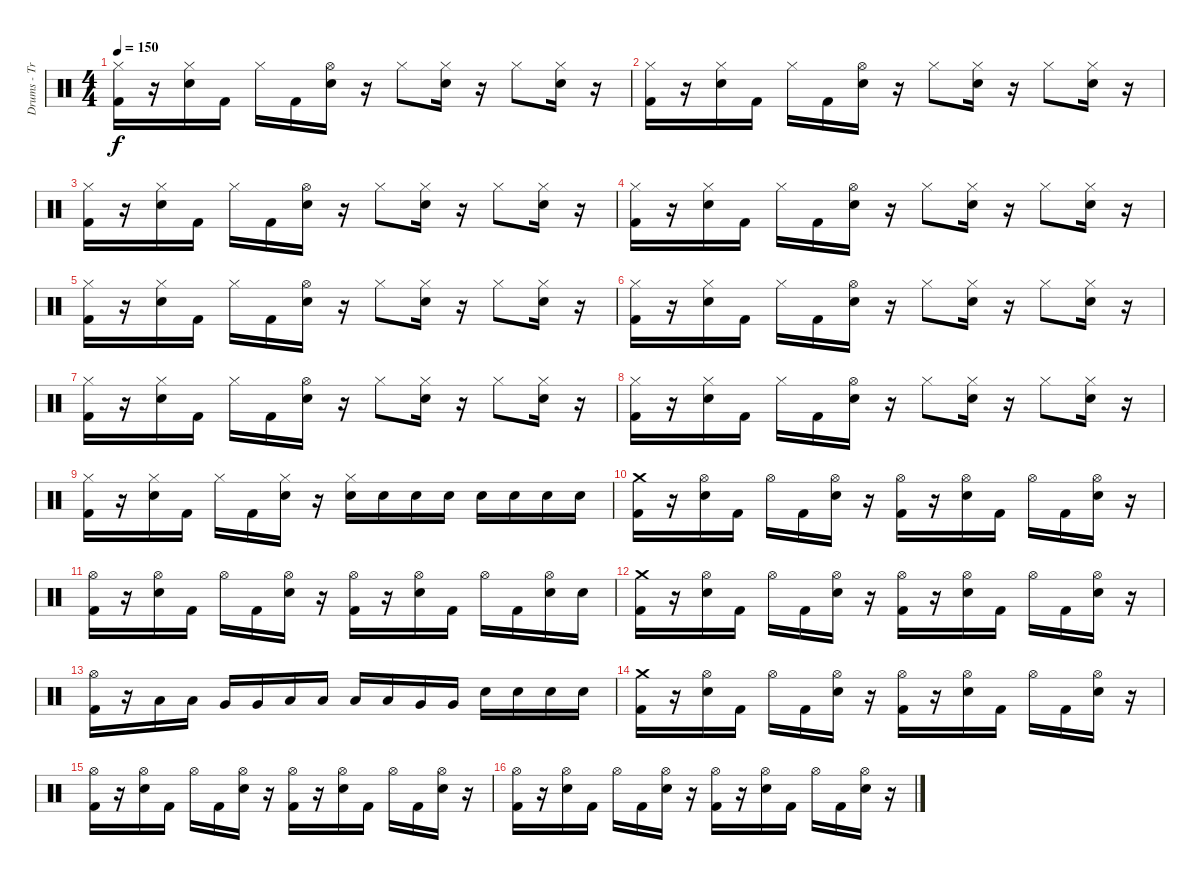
\track ("Drums - Travis Barker" "Drums - Tr") {instrument percussion}
\staff {score}
\articulation defaults
\ts (4 4)
\tempo 150
\clef neutral
\ks c
("Hi-Hat (closed)" "Kick (hit) 2").16{dy f} r.16 ("Hi-Hat (closed)" "Electric Snare (hit)").16 "Kick (hit) 2".16 "Hi-Hat (closed)".16 "Kick (hit) 2".16 ("Hi-Hat (open)" "Electric Snare (hit)").16 r.16 "Hi-Hat (closed)".8 ("Hi-Hat (closed)" "Electric Snare (hit)").16 r.16 "Hi-Hat (closed)".8 ("Hi-Hat (closed)" "Electric Snare (hit)").16 r.16 |
("Hi-Hat (closed)" "Kick (hit) 2").16 r.16 ("Hi-Hat (closed)" "Electric Snare (hit)").16 "Kick (hit) 2".16 "Hi-Hat (closed)".16 "Kick (hit) 2".16 ("Hi-Hat (open)" "Electric Snare (hit)").16 r.16 "Hi-Hat (closed)".8 ("Hi-Hat (closed)" "Electric Snare (hit)").16 r.16 "Hi-Hat (closed)".8 ("Hi-Hat (closed)" "Electric Snare (hit)").16 r.16 |
("Hi-Hat (closed)" "Kick (hit) 2").16 r.16 ("Hi-Hat (closed)" "Electric Snare (hit)").16 "Kick (hit) 2".16 "Hi-Hat (closed)".16 "Kick (hit) 2".16 ("Hi-Hat (open)" "Electric Snare (hit)").16 r.16 "Hi-Hat (closed)".8 ("Hi-Hat (closed)" "Electric Snare (hit)").16 r.16 "Hi-Hat (closed)".8 ("Hi-Hat (closed)" "Electric Snare (hit)").16 r.16 |
("Hi-Hat (closed)" "Kick (hit) 2").16 r.16 ("Hi-Hat (closed)" "Electric Snare (hit)").16 "Kick (hit) 2".16 "Hi-Hat (closed)".16 "Kick (hit) 2".16 ("Hi-Hat (open)" "Electric Snare (hit)").16 r.16 "Hi-Hat (closed)".8 ("Hi-Hat (closed)" "Electric Snare (hit)").16 r.16 "Hi-Hat (closed)".8 ("Hi-Hat (closed)" "Electric Snare (hit)").16 r.16 |
("Hi-Hat (closed)" "Kick (hit) 2").16 r.16 ("Hi-Hat (closed)" "Electric Snare (hit)").16 "Kick (hit) 2".16 "Hi-Hat (closed)".16 "Kick (hit) 2".16 ("Hi-Hat (open)" "Electric Snare (hit)").16 r.16 "Hi-Hat (closed)".8 ("Hi-Hat (closed)" "Electric Snare (hit)").16 r.16 "Hi-Hat (closed)".8 ("Hi-Hat (closed)" "Electric Snare (hit)").16 r.16 |
("Hi-Hat (closed)" "Kick (hit) 2").16 r.16 ("Hi-Hat (closed)" "Electric Snare (hit)").16 "Kick (hit) 2".16 "Hi-Hat (closed)".16 "Kick (hit) 2".16 ("Hi-Hat (open)" "Electric Snare (hit)").16 r.16 "Hi-Hat (closed)".8 ("Hi-Hat (closed)" "Electric Snare (hit)").16 r.16 "Hi-Hat (closed)".8 ("Hi-Hat (closed)" "Electric Snare (hit)").16 r.16 |
("Hi-Hat (closed)" "Kick (hit) 2").16 r.16 ("Hi-Hat (closed)" "Electric Snare (hit)").16 "Kick (hit) 2".16 "Hi-Hat (closed)".16 "Kick (hit) 2".16 ("Hi-Hat (open)" "Electric Snare (hit)").16 r.16 "Hi-Hat (closed)".8 ("Hi-Hat (closed)" "Electric Snare (hit)").16 r.16 "Hi-Hat (closed)".8 ("Hi-Hat (closed)" "Electric Snare (hit)").16 r.16 |
("Hi-Hat (closed)" "Kick (hit) 2").16 r.16 ("Hi-Hat (closed)" "Electric Snare (hit)").16 "Kick (hit) 2".16 "Hi-Hat (closed)".16 "Kick (hit) 2".16 ("Hi-Hat (open)" "Electric Snare (hit)").16 r.16 "Hi-Hat (closed)".8 ("Hi-Hat (closed)" "Electric Snare (hit)").16 r.16 "Hi-Hat (closed)".8 ("Hi-Hat (closed)" "Electric Snare (hit)").16 r.16 |
("Hi-Hat (closed)" "Kick (hit) 2").16 r.16 ("Hi-Hat (closed)" "Electric Snare (hit)").16 "Kick (hit) 2".16 "Hi-Hat (closed)".16 "Kick (hit) 2".16 ("Hi-Hat (closed)" "Electric Snare (hit)").16 r.16 ("Hi-Hat (closed)" "Electric Snare (hit)").16 "Electric Snare (hit)".16 "Electric Snare (hit)".16 "Electric Snare (hit)".16 "Electric Snare (hit)".16 "Electric Snare (hit)".16 "Electric Snare (hit)".16 "Electric Snare (hit)".16 |
("Crash medium (hit)" "Kick (hit) 2").16 r.16 ("Hi-Hat (open)" "Electric Snare (hit)").16 "Kick (hit) 2".16 "Hi-Hat (open)".16 "Kick (hit) 2".16 ("Hi-Hat (open)" "Electric Snare (hit)").16 r.16 ("Hi-Hat (open)" "Kick (hit) 2").16 r.16 ("Hi-Hat (open)" "Electric Snare (hit)").16 "Kick (hit) 2".16 "Hi-Hat (open)".16 "Kick (hit) 2".16 ("Hi-Hat (open)" "Electric Snare (hit)").16 r.16 |
("Hi-Hat (open)" "Kick (hit) 2").16 r.16 ("Hi-Hat (open)" "Electric Snare (hit)").16 "Kick (hit) 2".16 "Hi-Hat (open)".16 "Kick (hit) 2".16 ("Hi-Hat (open)" "Electric Snare (hit)").16 r.16 ("Hi-Hat (open)" "Kick (hit) 2").16 r.16 ("Hi-Hat (open)" "Electric Snare (hit)").16 "Kick (hit) 2".16 "Hi-Hat (open)".16 "Kick (hit) 2".16 ("Hi-Hat (open)" "Electric Snare (hit)").16 "Electric Snare (hit)".16 |
("Crash medium (hit)" "Kick (hit) 2").16 r.16 ("Hi-Hat (open)" "Electric Snare (hit)").16 "Kick (hit) 2".16 "Hi-Hat (open)".16 "Kick (hit) 2".16 ("Hi-Hat (open)" "Electric Snare (hit)").16 r.16 ("Hi-Hat (open)" "Kick (hit) 2").16 r.16 ("Hi-Hat (open)" "Electric Snare (hit)").16 "Kick (hit) 2".16 "Hi-Hat (open)".16 "Kick (hit) 2".16 ("Hi-Hat (open)" "Electric Snare (hit)").16 r.16 |
("Hi-Hat (open)" "Kick (hit) 2").16 r.16 "Low Tom (hit)".16 "Low Tom (hit)".16 "Very Low Tom (hit)".16 "Very Low Tom (hit)".16 "Low Floor Tom (hit)".16 "Low Floor Tom (hit)".16 "Low Tom (hit)".16 "Low Tom (hit)".16 "Very Low Tom (hit)".16 "Very Low Tom (hit)".16 "Electric Snare (hit)".16 "Electric Snare (hit)".16 "Electric Snare (hit)".16 "Electric Snare (hit)".16 |
("Crash medium (hit)" "Kick (hit) 2").16 r.16 ("Hi-Hat (open)" "Electric Snare (hit)").16 "Kick (hit) 2".16 "Hi-Hat (open)".16 "Kick (hit) 2".16 ("Hi-Hat (open)" "Electric Snare (hit)").16 r.16 ("Hi-Hat (open)" "Kick (hit) 2").16 r.16 ("Hi-Hat (open)" "Electric Snare (hit)").16 "Kick (hit) 2".16 "Hi-Hat (open)".16 "Kick (hit) 2".16 ("Hi-Hat (open)" "Electric Snare (hit)").16 r.16 |
("Hi-Hat (open)" "Kick (hit) 2").16 r.16 ("Hi-Hat (open)" "Electric Snare (hit)").16 "Kick (hit) 2".16 "Hi-Hat (open)".16 "Kick (hit) 2".16 ("Hi-Hat (open)" "Electric Snare (hit)").16 r.16 ("Hi-Hat (open)" "Kick (hit) 2").16 r.16 ("Hi-Hat (open)" "Electric Snare (hit)").16 "Kick (hit) 2".16 "Hi-Hat (open)".16 "Kick (hit) 2".16 ("Hi-Hat (open)" "Electric Snare (hit)").16 r.16 |
("Hi-Hat (open)" "Kick (hit) 2").16 r.16 ("Hi-Hat (open)" "Electric Snare (hit)").16 "Kick (hit) 2".16 "Hi-Hat (open)".16 "Kick (hit) 2".16 ("Hi-Hat (open)" "Electric Snare (hit)").16 r.16 ("Hi-Hat (open)" "Kick (hit) 2").16 r.16 ("Hi-Hat (open)" "Electric Snare (hit)").16 "Kick (hit) 2".16 "Hi-Hat (open)".16 "Kick (hit) 2".16 ("Hi-Hat (open)" "Electric Snare (hit)").16 r.16
